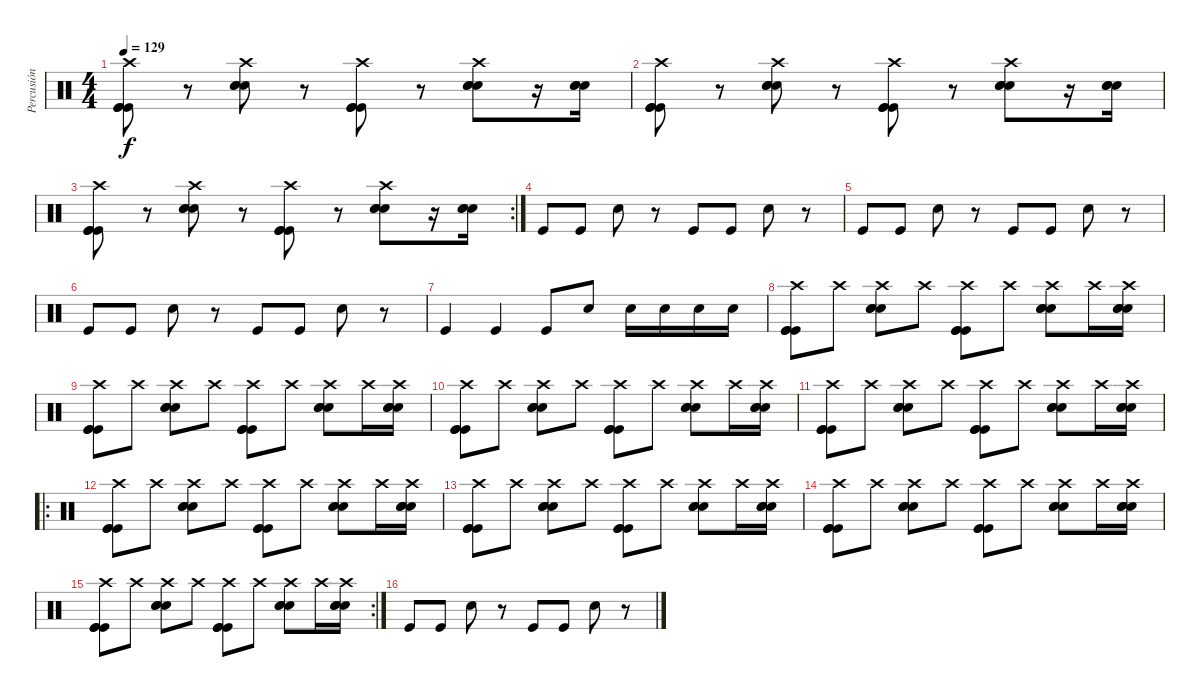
\track ("Percusión" "Percusión") {instrument percussion}
\staff {score}
\articulation defaults
\ts (4 4)
\tempo 129
\clef neutral
\ks c
("Crash high (hit)" "Kick (hit)" "Kick (hit)" "Kick (hit)").8{dy f} r.8 ("Crash high (hit)" "Electric Snare (hit)" "Electric Snare (hit)" "Electric Snare (hit)").8 r.8 ("Crash high (hit)" "Kick (hit)" "Kick (hit)" "Kick (hit)").8 r.8 ("Crash high (hit)" "Electric Snare (hit)" "Electric Snare (hit)" "Electric Snare (hit)").8 r.16 ("Electric Snare (hit)" "Electric Snare (hit)" "Electric Snare (hit)").16 |
("Crash high (hit)" "Kick (hit)" "Kick (hit)" "Kick (hit)").8 r.8 ("Crash high (hit)" "Electric Snare (hit)" "Electric Snare (hit)" "Electric Snare (hit)").8 r.8 ("Crash high (hit)" "Kick (hit)" "Kick (hit)" "Kick (hit)").8 r.8 ("Crash high (hit)" "Electric Snare (hit)" "Electric Snare (hit)" "Electric Snare (hit)").8 r.16 ("Electric Snare (hit)" "Electric Snare (hit)" "Electric Snare (hit)").16 |
\rc 2
("Crash high (hit)" "Kick (hit)" "Kick (hit)" "Kick (hit)").8 r.8 ("Crash high (hit)" "Electric Snare (hit)" "Electric Snare (hit)" "Electric Snare (hit)").8 r.8 ("Crash high (hit)" "Kick (hit)" "Kick (hit)" "Kick (hit)").8 r.8 ("Crash high (hit)" "Electric Snare (hit)" "Electric Snare (hit)" "Electric Snare (hit)").8 r.16 ("Electric Snare (hit)" "Electric Snare (hit)" "Electric Snare (hit)").16 |
"Kick (hit)".8 "Kick (hit)".8 "Electric Snare (hit)".8 r.8 "Kick (hit)".8 "Kick (hit)".8 "Electric Snare (hit)".8 r.8 |
"Kick (hit)".8 "Kick (hit)".8 "Electric Snare (hit)".8 r.8 "Kick (hit)".8 "Kick (hit)".8 "Electric Snare (hit)".8 r.8 |
"Kick (hit)".8 "Kick (hit)".8 "Electric Snare (hit)".8 r.8 "Kick (hit)".8 "Kick (hit)".8 "Electric Snare (hit)".8 r.8 |
"Kick (hit)".4 "Kick (hit)".4 "Kick (hit)".8 "Electric Snare (hit)".8 "Electric Snare (hit)".16 "Electric Snare (hit)".16 "Electric Snare (hit)".16 "Electric Snare (hit)".16 |
("Crash high (hit)" "Kick (hit)" "Kick (hit)" "Kick (hit)").8 "Crash high (hit)".8 ("Crash high (hit)" "Electric Snare (hit)" "Electric Snare (hit)" "Electric Snare (hit)").8 "Crash high (hit)".8 ("Crash high (hit)" "Kick (hit)" "Kick (hit)" "Kick (hit)").8 "Crash high (hit)".8 ("Crash high (hit)" "Electric Snare (hit)" "Electric Snare (hit)" "Electric Snare (hit)").8 "Crash high (hit)".16 ("Crash high (hit)" "Electric Snare (hit)" "Electric Snare (hit)" "Electric Snare (hit)").16 |
("Crash high (hit)" "Kick (hit)" "Kick (hit)" "Kick (hit)").8 "Crash high (hit)".8 ("Crash high (hit)" "Electric Snare (hit)" "Electric Snare (hit)" "Electric Snare (hit)").8 "Crash high (hit)".8 ("Crash high (hit)" "Kick (hit)" "Kick (hit)" "Kick (hit)").8 "Crash high (hit)".8 ("Crash high (hit)" "Electric Snare (hit)" "Electric Snare (hit)" "Electric Snare (hit)").8 "Crash high (hit)".16 ("Crash high (hit)" "Electric Snare (hit)" "Electric Snare (hit)" "Electric Snare (hit)").16 |
("Crash high (hit)" "Kick (hit)" "Kick (hit)" "Kick (hit)").8 "Crash high (hit)".8 ("Crash high (hit)" "Electric Snare (hit)" "Electric Snare (hit)" "Electric Snare (hit)").8 "Crash high (hit)".8 ("Crash high (hit)" "Kick (hit)" "Kick (hit)" "Kick (hit)").8 "Crash high (hit)".8 ("Crash high (hit)" "Electric Snare (hit)" "Electric Snare (hit)" "Electric Snare (hit)").8 "Crash high (hit)".16 ("Crash high (hit)" "Electric Snare (hit)" "Electric Snare (hit)" "Electric Snare (hit)").16 |
("Crash high (hit)" "Kick (hit)" "Kick (hit)" "Kick (hit)").8 "Crash high (hit)".8 ("Crash high (hit)" "Electric Snare (hit)" "Electric Snare (hit)" "Electric Snare (hit)").8 "Crash high (hit)".8 ("Crash high (hit)" "Kick (hit)" "Kick (hit)" "Kick (hit)").8 "Crash high (hit)".8 ("Crash high (hit)" "Electric Snare (hit)" "Electric Snare (hit)" "Electric Snare (hit)").8 "Crash high (hit)".16 ("Crash high (hit)" "Electric Snare (hit)" "Electric Snare (hit)" "Electric Snare (hit)").16 |
\ro
("Crash high (hit)" "Kick (hit)" "Kick (hit)" "Kick (hit)").8 "Crash high (hit)".8 ("Crash high (hit)" "Electric Snare (hit)" "Electric Snare (hit)" "Electric Snare (hit)").8 "Crash high (hit)".8 ("Crash high (hit)" "Kick (hit)" "Kick (hit)" "Kick (hit)").8 "Crash high (hit)".8 ("Crash high (hit)" "Electric Snare (hit)" "Electric Snare (hit)" "Electric Snare (hit)").8 "Crash high (hit)".16 ("Crash high (hit)" "Electric Snare (hit)" "Electric Snare (hit)" "Electric Snare (hit)").16 |
("Crash high (hit)" "Kick (hit)" "Kick (hit)" "Kick (hit)").8 "Crash high (hit)".8 ("Crash high (hit)" "Electric Snare (hit)" "Electric Snare (hit)" "Electric Snare (hit)").8 "Crash high (hit)".8 ("Crash high (hit)" "Kick (hit)" "Kick (hit)" "Kick (hit)").8 "Crash high (hit)".8 ("Crash high (hit)" "Electric Snare (hit)" "Electric Snare (hit)" "Electric Snare (hit)").8 "Crash high (hit)".16 ("Crash high (hit)" "Electric Snare (hit)" "Electric Snare (hit)" "Electric Snare (hit)").16 |
("Crash high (hit)" "Kick (hit)" "Kick (hit)" "Kick (hit)").8 "Crash high (hit)".8 ("Crash high (hit)" "Electric Snare (hit)" "Electric Snare (hit)" "Electric Snare (hit)").8 "Crash high (hit)".8 ("Crash high (hit)" "Kick (hit)" "Kick (hit)" "Kick (hit)").8 "Crash high (hit)".8 ("Crash high (hit)" "Electric Snare (hit)" "Electric Snare (hit)" "Electric Snare (hit)").8 "Crash high (hit)".16 ("Crash high (hit)" "Electric Snare (hit)" "Electric Snare (hit)" "Electric Snare (hit)").16 |
\rc 2
("Crash high (hit)" "Kick (hit)" "Kick (hit)" "Kick (hit)").8 "Crash high (hit)".8 ("Crash high (hit)" "Electric Snare (hit)" "Electric Snare (hit)" "Electric Snare (hit)").8 "Crash high (hit)".8 ("Crash high (hit)" "Kick (hit)" "Kick (hit)" "Kick (hit)").8 "Crash high (hit)".8 ("Crash high (hit)" "Electric Snare (hit)" "Electric Snare (hit)" "Electric Snare (hit)").8 "Crash high (hit)".16 ("Crash high (hit)" "Electric Snare (hit)" "Electric Snare (hit)" "Electric Snare (hit)").16 |
"Kick (hit)".8 "Kick (hit)".8 "Electric Snare (hit)".8 r.8 "Kick (hit)".8 "Kick (hit)".8 "Electric Snare (hit)".8 r.8
